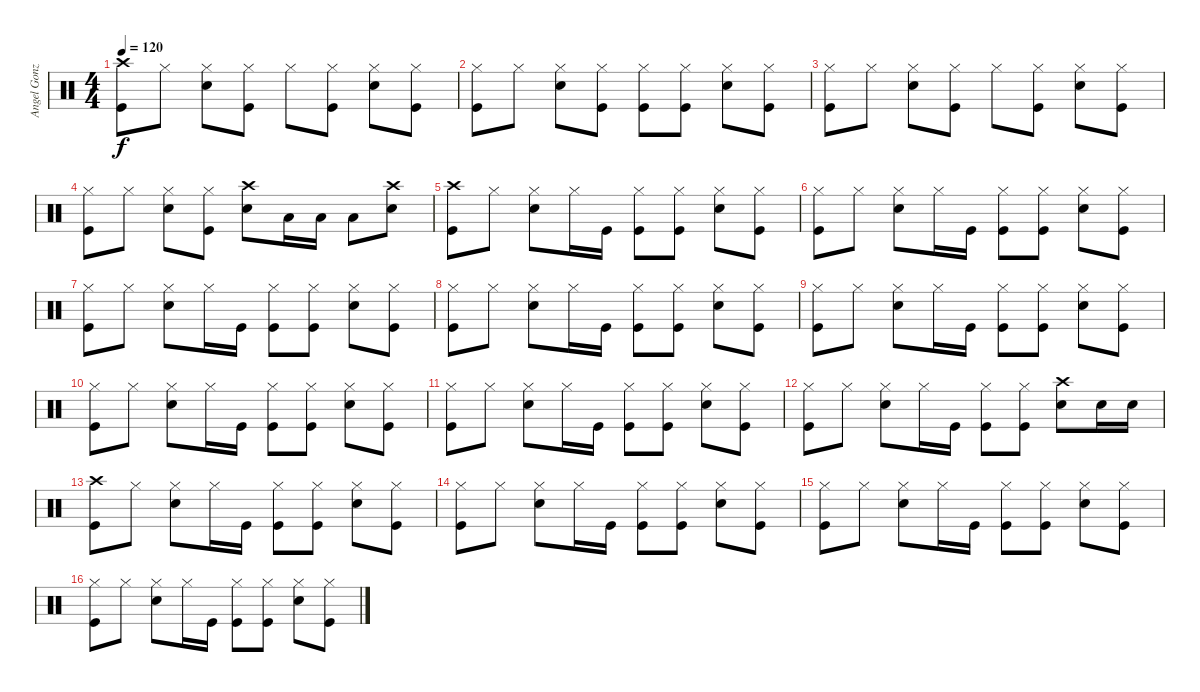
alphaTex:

\track ("Angel Gonzalez - Batería" "Angel Gonz") {instrument percussion}
\staff {score}
\articulation defaults
\ts (4 4)
\tempo 120
\clef neutral
\ks c
("Crash high (hit)" "Kick (hit)").8{dy f} "Hi-Hat (closed)".8 ("Hi-Hat (closed)" "Electric Snare (hit)").8 ("Hi-Hat (closed)" "Kick (hit)").8 "Hi-Hat (closed)".8 ("Hi-Hat (closed)" "Kick (hit)").8 ("Hi-Hat (closed)" "Electric Snare (hit)").8 ("Hi-Hat (closed)" "Kick (hit)").8 |
("Hi-Hat (closed)" "Kick (hit)").8 "Hi-Hat (closed)".8 ("Hi-Hat (closed)" "Electric Snare (hit)").8 ("Hi-Hat (closed)" "Kick (hit)").8 ("Hi-Hat (closed)" "Kick (hit)").8 ("Hi-Hat (closed)" "Kick (hit)").8 ("Hi-Hat (closed)" "Electric Snare (hit)").8 ("Hi-Hat (closed)" "Kick (hit)").8 |
("Hi-Hat (closed)" "Kick (hit)").8 "Hi-Hat (closed)".8 ("Hi-Hat (closed)" "Electric Snare (hit)").8 ("Hi-Hat (closed)" "Kick (hit)").8 "Hi-Hat (closed)".8 ("Hi-Hat (closed)" "Kick (hit)").8 ("Hi-Hat (closed)" "Electric Snare (hit)").8 ("Hi-Hat (closed)" "Kick (hit)").8 |
("Hi-Hat (closed)" "Kick (hit)").8 "Hi-Hat (closed)".8 ("Hi-Hat (closed)" "Electric Snare (hit)").8 ("Hi-Hat (closed)" "Kick (hit)").8 ("Crash high (hit)" "Electric Snare (hit)").8 "Low Tom (hit)".16 "Low Tom (hit)".16 "Low Tom (hit)".8 ("Crash high (hit)" "Electric Snare (hit)").8 |
("Crash high (hit)" "Kick (hit)").8 "Hi-Hat (closed)".8 ("Hi-Hat (closed)" "Electric Snare (hit)").8 "Hi-Hat (closed)".16 "Kick (hit)".16 ("Hi-Hat (closed)" "Kick (hit)").8 ("Hi-Hat (closed)" "Kick (hit)").8 ("Hi-Hat (closed)" "Electric Snare (hit)").8 ("Hi-Hat (closed)" "Kick (hit)").8 |
("Hi-Hat (closed)" "Kick (hit)").8 "Hi-Hat (closed)".8 ("Hi-Hat (closed)" "Electric Snare (hit)").8 "Hi-Hat (closed)".16 "Kick (hit)".16 ("Hi-Hat (closed)" "Kick (hit)").8 ("Hi-Hat (closed)" "Kick (hit)").8 ("Hi-Hat (closed)" "Electric Snare (hit)").8 ("Hi-Hat (closed)" "Kick (hit)").8 |
("Hi-Hat (closed)" "Kick (hit)").8 "Hi-Hat (closed)".8 ("Hi-Hat (closed)" "Electric Snare (hit)").8 "Hi-Hat (closed)".16 "Kick (hit)".16 ("Hi-Hat (closed)" "Kick (hit)").8 ("Hi-Hat (closed)" "Kick (hit)").8 ("Hi-Hat (closed)" "Electric Snare (hit)").8 ("Hi-Hat (closed)" "Kick (hit)").8 |
("Hi-Hat (closed)" "Kick (hit)").8 "Hi-Hat (closed)".8 ("Hi-Hat (closed)" "Electric Snare (hit)").8 "Hi-Hat (closed)".16 "Kick (hit)".16 ("Hi-Hat (closed)" "Kick (hit)").8 ("Hi-Hat (closed)" "Kick (hit)").8 ("Hi-Hat (closed)" "Electric Snare (hit)").8 ("Hi-Hat (closed)" "Kick (hit)").8 |
("Hi-Hat (closed)" "Kick (hit)").8 "Hi-Hat (closed)".8 ("Hi-Hat (closed)" "Electric Snare (hit)").8 "Hi-Hat (closed)".16 "Kick (hit)".16 ("Hi-Hat (closed)" "Kick (hit)").8 ("Hi-Hat (closed)" "Kick (hit)").8 ("Hi-Hat (closed)" "Electric Snare (hit)").8 ("Hi-Hat (closed)" "Kick (hit)").8 |
("Hi-Hat (closed)" "Kick (hit)").8 "Hi-Hat (closed)".8 ("Hi-Hat (closed)" "Electric Snare (hit)").8 "Hi-Hat (closed)".16 "Kick (hit)".16 ("Hi-Hat (closed)" "Kick (hit)").8 ("Hi-Hat (closed)" "Kick (hit)").8 ("Hi-Hat (closed)" "Electric Snare (hit)").8 ("Hi-Hat (closed)" "Kick (hit)").8 |
("Hi-Hat (closed)" "Kick (hit)").8 "Hi-Hat (closed)".8 ("Hi-Hat (closed)" "Electric Snare (hit)").8 "Hi-Hat (closed)".16 "Kick (hit)".16 ("Hi-Hat (closed)" "Kick (hit)").8 ("Hi-Hat (closed)" "Kick (hit)").8 ("Hi-Hat (closed)" "Electric Snare (hit)").8 ("Hi-Hat (closed)" "Kick (hit)").8 |
("Hi-Hat (closed)" "Kick (hit)").8 "Hi-Hat (closed)".8 ("Hi-Hat (closed)" "Electric Snare (hit)").8 "Hi-Hat (closed)".16 "Kick (hit)".16 ("Hi-Hat (closed)" "Kick (hit)").8 ("Hi-Hat (closed)" "Kick (hit)").8 ("Crash high (hit)" "Electric Snare (hit)").8 "Electric Snare (hit)".16 "Electric Snare (hit)".16 |
("Crash high (hit)" "Kick (hit)").8 "Hi-Hat (closed)".8 ("Hi-Hat (closed)" "Electric Snare (hit)").8 "Hi-Hat (closed)".16 "Kick (hit)".16 ("Hi-Hat (closed)" "Kick (hit)").8 ("Hi-Hat (closed)" "Kick (hit)").8 ("Hi-Hat (closed)" "Electric Snare (hit)").8 ("Hi-Hat (closed)" "Kick (hit)").8 |
("Hi-Hat (closed)" "Kick (hit)").8 "Hi-Hat (closed)".8 ("Hi-Hat (closed)" "Electric Snare (hit)").8 "Hi-Hat (closed)".16 "Kick (hit)".16 ("Hi-Hat (closed)" "Kick (hit)").8 ("Hi-Hat (closed)" "Kick (hit)").8 ("Hi-Hat (closed)" "Electric Snare (hit)").8 ("Hi-Hat (closed)" "Kick (hit)").8 |
("Hi-Hat (closed)" "Kick (hit)").8 "Hi-Hat (closed)".8 ("Hi-Hat (closed)" "Electric Snare (hit)").8 "Hi-Hat (closed)".16 "Kick (hit)".16 ("Hi-Hat (closed)" "Kick (hit)").8 ("Hi-Hat (closed)" "Kick (hit)").8 ("Hi-Hat (closed)" "Electric Snare (hit)").8 ("Hi-Hat (closed)" "Kick (hit)").8 |
("Hi-Hat (closed)" "Kick (hit)").8 "Hi-Hat (closed)".8 ("Hi-Hat (closed)" "Electric Snare (hit)").8 "Hi-Hat (closed)".16 "Kick (hit)".16 ("Hi-Hat (closed)" "Kick (hit)").8 ("Hi-Hat (closed)" "Kick (hit)").8 ("Hi-Hat (closed)" "Electric Snare (hit)").8 ("Hi-Hat (closed)" "Kick (hit)").8
